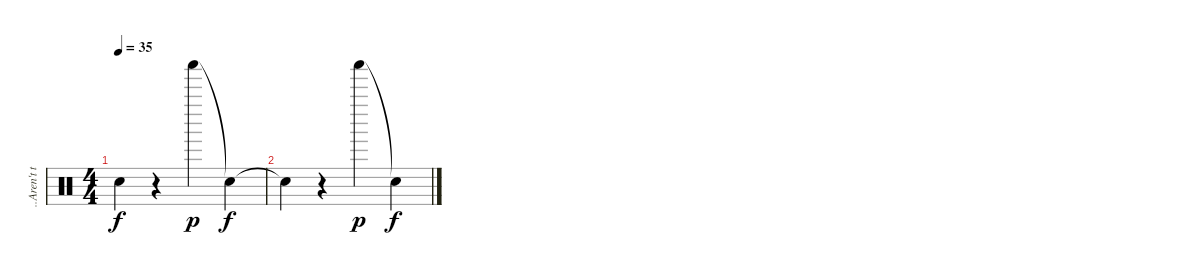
\track ("..Aren't they?.." "..Aren't t") {instrument percussion}
\staff {score}
\articulation defaults
\ts (4 4)
\tempo 35
\clef neutral
\ks c "Snare (hit)"{t}.4{dy f}
r.4 "Shaker (hit)".4{dy p} "Snare (hit)"{t}.4{dy f} |
"Snare (hit)"{t}.4 r.4 "Shaker (hit)".4{dy p} "Snare (hit)"{t}.4{dy f}
